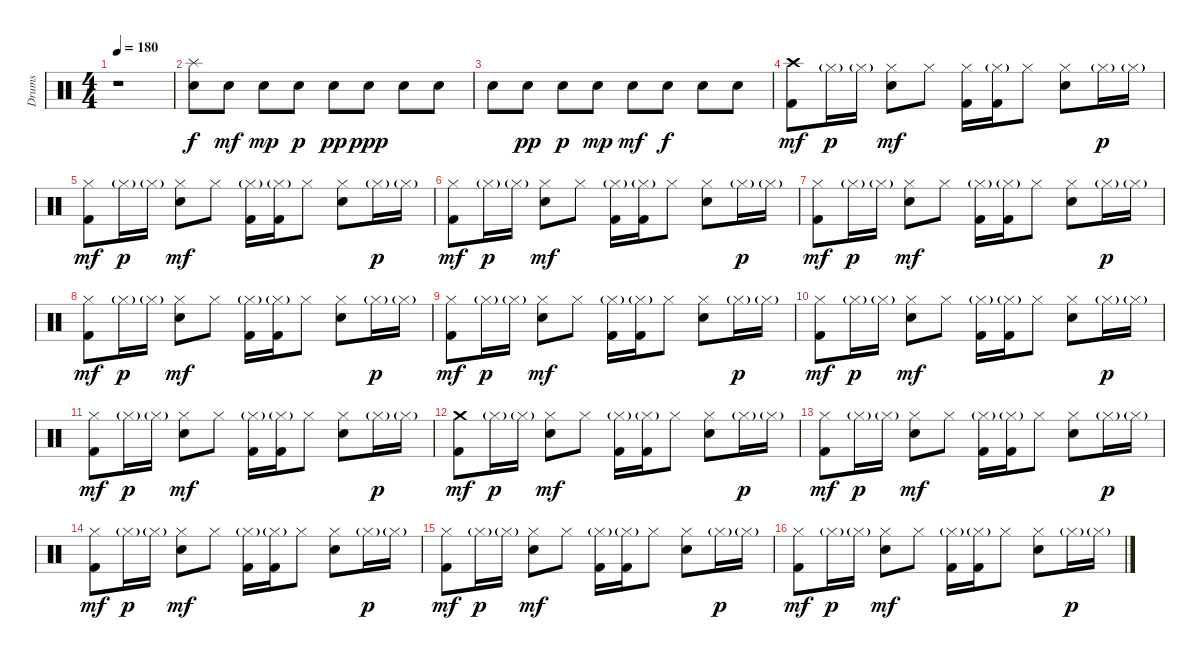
\track ("Drums" "Drums") {instrument percussion}
\staff {score}
\articulation defaults
\ts (4 4)
\tempo 180
\clef neutral
\ks c
r.1{dy f} |
("Splash (hit)" "Snare (hit) 2").8 "Snare (hit) 2".8{dy mf} "Snare (hit) 2".8{dy mp} "Snare (hit) 2".8{dy p} "Snare (hit) 2".8{dy pp} "Snare (hit) 2".8{dy ppp} "Snare (hit) 2".8 "Snare (hit) 2".8 |
"Snare (hit) 2".8 "Snare (hit) 2".8{dy pp} "Snare (hit) 2".8{dy p} "Snare (hit) 2".8{dy mp} "Snare (hit) 2".8{dy mf} "Snare (hit) 2".8{dy f} "Snare (hit) 2".8 "Snare (hit) 2".8 |
("Crash high (hit)" "Kick (hit) 2").8{dy mf} "Hi-Hat (closed)"{g}.16{dy p} "Hi-Hat (closed)"{g}.16 ("Hi-Hat (closed)" "Snare (hit) 2").8{dy mf} "Hi-Hat (closed)".8 ("Hi-Hat (closed)" "Kick (hit) 2").16 ("Hi-Hat (closed)"{g} "Kick (hit) 2").16 "Hi-Hat (closed)".8 ("Hi-Hat (closed)" "Snare (hit) 2").8 "Hi-Hat (closed)"{g}.16{dy p} "Hi-Hat (closed)"{g}.16 |
("Hi-Hat (closed)" "Kick (hit) 2").8{dy mf} "Hi-Hat (closed)"{g}.16{dy p} "Hi-Hat (closed)"{g}.16 ("Hi-Hat (closed)" "Snare (hit) 2").8{dy mf} "Hi-Hat (closed)".8 ("Hi-Hat (closed)"{g} "Kick (hit) 2").16 ("Hi-Hat (closed)"{g} "Kick (hit) 2").16 "Hi-Hat (closed)".8 ("Hi-Hat (closed)" "Snare (hit) 2").8 "Hi-Hat (closed)"{g}.16{dy p} "Hi-Hat (closed)"{g}.16 |
("Hi-Hat (closed)" "Kick (hit) 2").8{dy mf} "Hi-Hat (closed)"{g}.16{dy p} "Hi-Hat (closed)"{g}.16 ("Hi-Hat (closed)" "Snare (hit) 2").8{dy mf} "Hi-Hat (closed)".8 ("Hi-Hat (closed)"{g} "Kick (hit) 2").16 ("Hi-Hat (closed)"{g} "Kick (hit) 2").16 "Hi-Hat (closed)".8 ("Hi-Hat (closed)" "Snare (hit) 2").8 "Hi-Hat (closed)"{g}.16{dy p} "Hi-Hat (closed)"{g}.16 |
("Hi-Hat (closed)" "Kick (hit) 2").8{dy mf} "Hi-Hat (closed)"{g}.16{dy p} "Hi-Hat (closed)"{g}.16 ("Hi-Hat (closed)" "Snare (hit) 2").8{dy mf} "Hi-Hat (closed)".8 ("Hi-Hat (closed)"{g} "Kick (hit) 2").16 ("Hi-Hat (closed)"{g} "Kick (hit) 2").16 "Hi-Hat (closed)".8 ("Hi-Hat (closed)" "Snare (hit) 2").8 "Hi-Hat (closed)"{g}.16{dy p} "Hi-Hat (closed)"{g}.16 |
("Hi-Hat (closed)" "Kick (hit) 2").8{dy mf} "Hi-Hat (closed)"{g}.16{dy p} "Hi-Hat (closed)"{g}.16 ("Hi-Hat (closed)" "Snare (hit) 2").8{dy mf} "Hi-Hat (closed)".8 ("Hi-Hat (closed)"{g} "Kick (hit) 2").16 ("Hi-Hat (closed)"{g} "Kick (hit) 2").16 "Hi-Hat (closed)".8 ("Hi-Hat (closed)" "Snare (hit) 2").8 "Hi-Hat (closed)"{g}.16{dy p} "Hi-Hat (closed)"{g}.16 |
("Hi-Hat (closed)" "Kick (hit) 2").8{dy mf} "Hi-Hat (closed)"{g}.16{dy p} "Hi-Hat (closed)"{g}.16 ("Hi-Hat (closed)" "Snare (hit) 2").8{dy mf} "Hi-Hat (closed)".8 ("Hi-Hat (closed)"{g} "Kick (hit) 2").16 ("Hi-Hat (closed)"{g} "Kick (hit) 2").16 "Hi-Hat (closed)".8 ("Hi-Hat (closed)" "Snare (hit) 2").8 "Hi-Hat (closed)"{g}.16{dy p} "Hi-Hat (closed)"{g}.16 |
("Hi-Hat (closed)" "Kick (hit) 2").8{dy mf} "Hi-Hat (closed)"{g}.16{dy p} "Hi-Hat (closed)"{g}.16 ("Hi-Hat (closed)" "Snare (hit) 2").8{dy mf} "Hi-Hat (closed)".8 ("Hi-Hat (closed)"{g} "Kick (hit) 2").16 ("Hi-Hat (closed)"{g} "Kick (hit) 2").16 "Hi-Hat (closed)".8 ("Hi-Hat (closed)" "Snare (hit) 2").8 "Hi-Hat (closed)"{g}.16{dy p} "Hi-Hat (closed)"{g}.16 |
("Hi-Hat (closed)" "Kick (hit) 2").8{dy mf} "Hi-Hat (closed)"{g}.16{dy p} "Hi-Hat (closed)"{g}.16 ("Hi-Hat (closed)" "Snare (hit) 2").8{dy mf} "Hi-Hat (closed)".8 ("Hi-Hat (closed)"{g} "Kick (hit) 2").16 ("Hi-Hat (closed)"{g} "Kick (hit) 2").16 "Hi-Hat (closed)".8 ("Hi-Hat (closed)" "Snare (hit) 2").8 "Hi-Hat (closed)"{g}.16{dy p} "Hi-Hat (closed)"{g}.16 |
("Crash medium (hit)" "Kick (hit) 2").8{dy mf} "Hi-Hat (closed)"{g}.16{dy p} "Hi-Hat (closed)"{g}.16 ("Hi-Hat (closed)" "Snare (hit) 2").8{dy mf} "Hi-Hat (closed)".8 ("Hi-Hat (closed)"{g} "Kick (hit) 2").16 ("Hi-Hat (closed)"{g} "Kick (hit) 2").16 "Hi-Hat (closed)".8 ("Hi-Hat (closed)" "Snare (hit) 2").8 "Hi-Hat (closed)"{g}.16{dy p} "Hi-Hat (closed)"{g}.16 |
("Hi-Hat (closed)" "Kick (hit) 2").8{dy mf} "Hi-Hat (closed)"{g}.16{dy p} "Hi-Hat (closed)"{g}.16 ("Hi-Hat (closed)" "Snare (hit) 2").8{dy mf} "Hi-Hat (closed)".8 ("Hi-Hat (closed)"{g} "Kick (hit) 2").16 ("Hi-Hat (closed)"{g} "Kick (hit) 2").16 "Hi-Hat (closed)".8 ("Hi-Hat (closed)" "Snare (hit) 2").8 "Hi-Hat (closed)"{g}.16{dy p} "Hi-Hat (closed)"{g}.16 |
("Hi-Hat (closed)" "Kick (hit) 2").8{dy mf} "Hi-Hat (closed)"{g}.16{dy p} "Hi-Hat (closed)"{g}.16 ("Hi-Hat (closed)" "Snare (hit) 2").8{dy mf} "Hi-Hat (closed)".8 ("Hi-Hat (closed)"{g} "Kick (hit) 2").16 ("Hi-Hat (closed)"{g} "Kick (hit) 2").16 "Hi-Hat (closed)".8 ("Hi-Hat (closed)" "Snare (hit) 2").8 "Hi-Hat (closed)"{g}.16{dy p} "Hi-Hat (closed)"{g}.16 |
("Hi-Hat (closed)" "Kick (hit) 2").8{dy mf} "Hi-Hat (closed)"{g}.16{dy p} "Hi-Hat (closed)"{g}.16 ("Hi-Hat (closed)" "Snare (hit) 2").8{dy mf} "Hi-Hat (closed)".8 ("Hi-Hat (closed)"{g} "Kick (hit) 2").16 ("Hi-Hat (closed)"{g} "Kick (hit) 2").16 "Hi-Hat (closed)".8 ("Hi-Hat (closed)" "Snare (hit) 2").8 "Hi-Hat (closed)"{g}.16{dy p} "Hi-Hat (closed)"{g}.16 |
("Hi-Hat (closed)" "Kick (hit) 2").8{dy mf} "Hi-Hat (closed)"{g}.16{dy p} "Hi-Hat (closed)"{g}.16 ("Hi-Hat (closed)" "Snare (hit) 2").8{dy mf} "Hi-Hat (closed)".8 ("Hi-Hat (closed)"{g} "Kick (hit) 2").16 ("Hi-Hat (closed)"{g} "Kick (hit) 2").16 "Hi-Hat (closed)".8 ("Hi-Hat (closed)" "Snare (hit) 2").8 "Hi-Hat (closed)"{g}.16{dy p} "Hi-Hat (closed)"{g}.16
